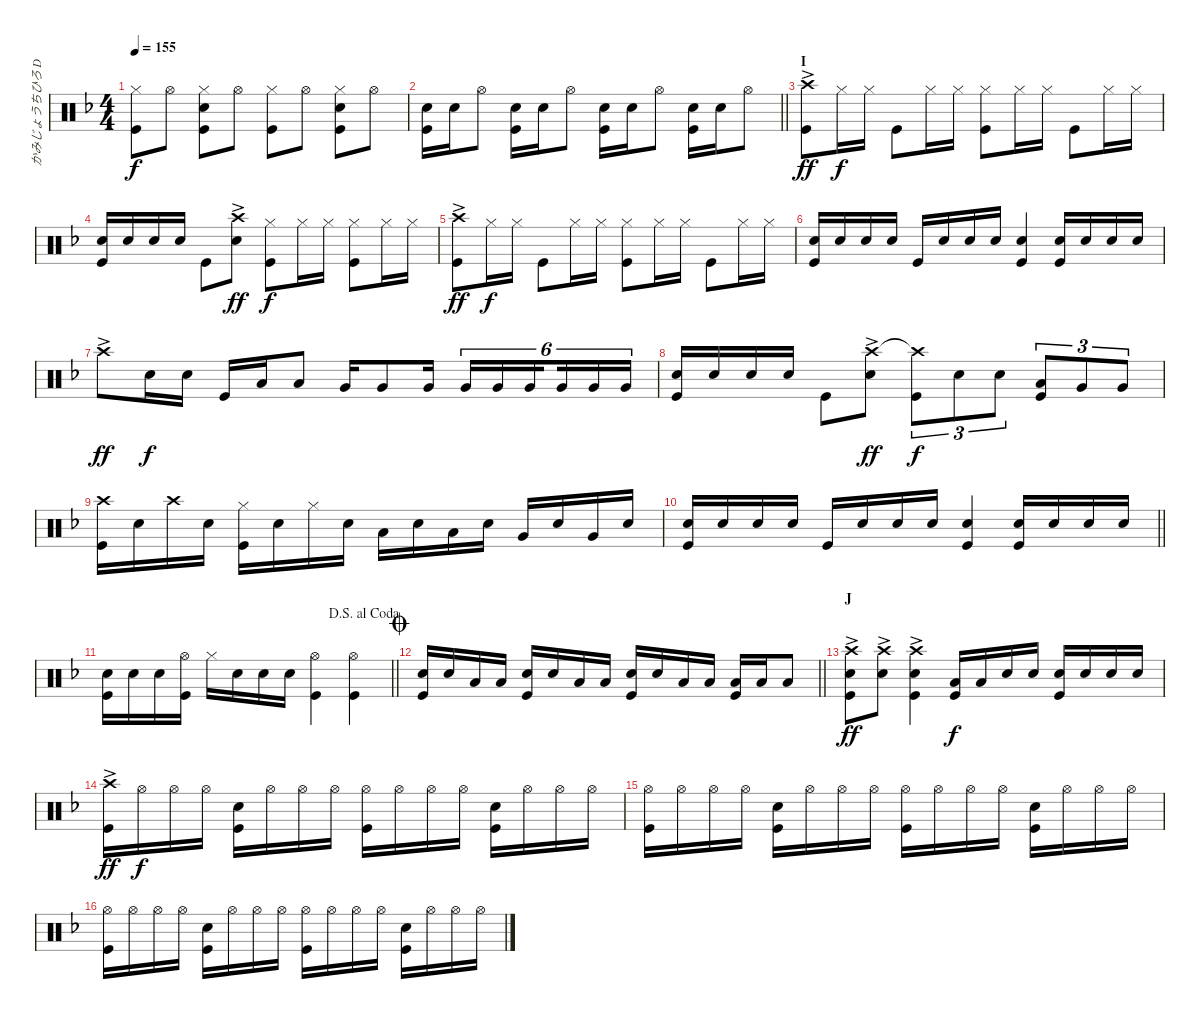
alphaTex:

\track ("かみじょうちひろ DRUMS" "かみじょうちひろ D") {instrument percussion}
\staff {score}
\articulation defaults
\ts (4 4)
\tempo 155
\clef neutral
\ks f
("Hi-Hat (closed)" "Kick (hit)").8{dy f} "Hi-Hat (open)".8 ("Hi-Hat (closed)" "Snare (hit) 2" "Kick (hit)").8 "Hi-Hat (open)".8 ("Hi-Hat (closed)" "Kick (hit)").8 "Hi-Hat (open)".8 ("Hi-Hat (closed)" "Snare (hit) 2" "Kick (hit)").8 "Hi-Hat (open)".8 |
\barLineRight lightlight
("Snare (hit) 2" "Kick (hit)").16 "Snare (hit) 2".16 "Hi-Hat (open)".8 ("Snare (hit) 2" "Kick (hit)").16 "Snare (hit) 2".16 "Hi-Hat (open)".8 ("Snare (hit) 2" "Kick (hit)").16 "Snare (hit) 2".16 "Hi-Hat (open)".8 ("Snare (hit) 2" "Kick (hit)").16 "Snare (hit) 2".16 "Hi-Hat (open)".8 |
\section ("" "I")
("Crash high (hit)"{ac} "Kick (hit)").8{dy ff} "Hi-Hat (closed)".16{dy f} "Hi-Hat (closed)".16 "Kick (hit)".8 "Hi-Hat (closed)".16 "Hi-Hat (closed)".16 ("Hi-Hat (closed)" "Kick (hit)").8 "Hi-Hat (closed)".16 "Hi-Hat (closed)".16 "Kick (hit)".8 "Hi-Hat (closed)".16 "Hi-Hat (closed)".16 |
("Snare (hit) 2" "Kick (hit)").16 "Snare (hit) 2".16 "Snare (hit) 2".16 "Snare (hit) 2".16 "Kick (hit)".8 ("Crash high (hit)"{ac} "Snare (hit) 2"{ac}).8{dy ff} ("Hi-Hat (closed)" "Kick (hit)").8{dy f} "Hi-Hat (closed)".16 "Hi-Hat (closed)".16 ("Hi-Hat (closed)" "Kick (hit)").8 "Hi-Hat (closed)".16 "Hi-Hat (closed)".16 |
("Crash high (hit)"{ac} "Kick (hit)").8{dy ff} "Hi-Hat (closed)".16{dy f} "Hi-Hat (closed)".16 "Kick (hit)".8 "Hi-Hat (closed)".16 "Hi-Hat (closed)".16 ("Hi-Hat (closed)" "Kick (hit)").8 "Hi-Hat (closed)".16 "Hi-Hat (closed)".16 "Kick (hit)".8 "Hi-Hat (closed)".16 "Hi-Hat (closed)".16 |
("Snare (hit) 2" "Kick (hit)").16 "Snare (hit) 2".16 "Snare (hit) 2".16 "Snare (hit) 2".16 "Kick (hit)".16 "Snare (hit) 2".16 "Snare (hit) 2".16 "Snare (hit) 2".16 ("Snare (hit) 2" "Kick (hit)").4 ("Snare (hit) 2" "Kick (hit)").16 "Snare (hit) 2".16 "Snare (hit) 2".16 "Snare (hit) 2".16 |
"Crash high (hit)"{ac}.8{dy ff} "Snare (hit) 2".16{dy f} "Snare (hit) 2".16 "Kick (hit)".16 "Low Tom (hit)".16 "Low Tom (hit)".8 "Very Low Tom (hit)".16 "Very Low Tom (hit)".8 "Very Low Tom (hit)".16 "Very Low Tom (hit)".16{tu (6 4) beam merge} "Very Low Tom (hit)".16{tu (6 4) beam merge} "Very Low Tom (hit)".16{tu (6 4) beam splitsecondary} "Very Low Tom (hit)".16{tu (6 4) beam merge} "Very Low Tom (hit)".16{tu (6 4) beam merge} "Very Low Tom (hit)".16{tu (6 4)} |
("Snare (hit) 2" "Kick (hit)").16 "Snare (hit) 2".16 "Snare (hit) 2".16 "Snare (hit) 2".16 "Kick (hit)".8 ("Crash high (hit)"{ac} "Snare (hit) 2").8{dy ff} ("Crash high (hit)"{t} "Kick (hit)").8{tu (3 2) dy f} "Snare (hit) 2".8{tu (3 2)} "Snare (hit) 2".8{tu (3 2)} ("Low Tom (hit)" "Kick (hit)").8{tu (3 2)} "Very Low Tom (hit)".8{tu (3 2)} "Very Low Tom (hit)".8{tu (3 2)} |
("Crash high (hit)" "Kick (hit)").16 "Snare (hit) 2".16 "Crash high (hit)".16 "Snare (hit) 2".16 ("Hi-Hat (closed)" "Kick (hit)").16 "Snare (hit) 2".16 "Hi-Hat (closed)".16 "Snare (hit) 2".16 "Low Tom (hit)".16 "Snare (hit) 2".16 "Low Tom (hit)".16 "Snare (hit) 2".16 "Very Low Tom (hit)".16 "Snare (hit) 2".16 "Very Low Tom (hit)".16 "Snare (hit) 2".16 |
\barLineRight lightlight
("Snare (hit) 2" "Kick (hit)").16 "Snare (hit) 2".16 "Snare (hit) 2".16 "Snare (hit) 2".16 "Kick (hit)".16 "Snare (hit) 2".16 "Snare (hit) 2".16 "Snare (hit) 2".16 ("Snare (hit) 2" "Kick (hit)").4 ("Snare (hit) 2" "Kick (hit)").16 "Snare (hit) 2".16 "Snare (hit) 2".16 "Snare (hit) 2".16 |
\jump dalsegnoalcoda
\barLineRight lightlight
("Snare (hit) 2" "Kick (hit)").16 "Snare (hit) 2".16 "Snare (hit) 2".16 ("Hi-Hat (open)" "Kick (hit)").16 "Hi-Hat (closed)".16 "Snare (hit) 2".16 "Snare (hit) 2".16 "Snare (hit) 2".16 ("Hi-Hat (open)" "Kick (hit)").4 ("Hi-Hat (open)" "Kick (hit)").4 |
\jump coda
\barLineRight lightlight
("Snare (hit) 2" "Kick (hit)").16 "Snare (hit) 2".16 "Low Tom (hit)".16 "Low Tom (hit)".16 ("Snare (hit) 2" "Kick (hit)").16 "Snare (hit) 2".16 "Low Tom (hit)".16 "Low Tom (hit)".16 ("Snare (hit) 2" "Kick (hit)").16 "Snare (hit) 2".16 "Low Tom (hit)".16 "Low Tom (hit)".16 ("Low Tom (hit)" "Kick (hit)").16 "Low Tom (hit)".16 "Low Tom (hit)".8 |
\section ("" "J")
("Crash high (hit)"{ac} "Snare (hit) 2"{ac} "Kick (hit)"{ac}).8{dy ff} ("Crash high (hit)"{ac} "Snare (hit) 2"{ac}).8 ("Crash high (hit)"{ac} "Snare (hit) 2"{ac} "Kick (hit)"{ac}).4 ("Low Tom (hit)" "Kick (hit)").16{dy f} "Low Tom (hit)".16 "Snare (hit) 2".16 "Snare (hit) 2".16 ("Snare (hit) 2" "Kick (hit)").16 "Snare (hit) 2".16 "Snare (hit) 2".16 "Snare (hit) 2".16 |
("Crash high (hit)"{ac} "Kick (hit)").16{dy ff} "Hi-Hat (open)".16{dy f} "Hi-Hat (open)".16 "Hi-Hat (open)".16 ("Snare (hit) 2" "Kick (hit)").16 "Hi-Hat (open)".16 "Hi-Hat (open)".16 "Hi-Hat (open)".16 ("Hi-Hat (open)" "Kick (hit)").16 "Hi-Hat (open)".16 "Hi-Hat (open)".16 "Hi-Hat (open)".16 ("Snare (hit) 2" "Kick (hit)").16 "Hi-Hat (open)".16 "Hi-Hat (open)".16 "Hi-Hat (open)".16 |
("Hi-Hat (open)" "Kick (hit)").16 "Hi-Hat (open)".16 "Hi-Hat (open)".16 "Hi-Hat (open)".16 ("Snare (hit) 2" "Kick (hit)").16 "Hi-Hat (open)".16 "Hi-Hat (open)".16 "Hi-Hat (open)".16 ("Hi-Hat (open)" "Kick (hit)").16 "Hi-Hat (open)".16 "Hi-Hat (open)".16 "Hi-Hat (open)".16 ("Snare (hit) 2" "Kick (hit)").16 "Hi-Hat (open)".16 "Hi-Hat (open)".16 "Hi-Hat (open)".16 |
("Hi-Hat (open)" "Kick (hit)").16 "Hi-Hat (open)".16 "Hi-Hat (open)".16 "Hi-Hat (open)".16 ("Snare (hit) 2" "Kick (hit)").16 "Hi-Hat (open)".16 "Hi-Hat (open)".16 "Hi-Hat (open)".16 ("Hi-Hat (open)" "Kick (hit)").16 "Hi-Hat (open)".16 "Hi-Hat (open)".16 "Hi-Hat (open)".16 ("Snare (hit) 2" "Kick (hit)").16 "Hi-Hat (open)".16 "Hi-Hat (open)".16 "Hi-Hat (open)".16
